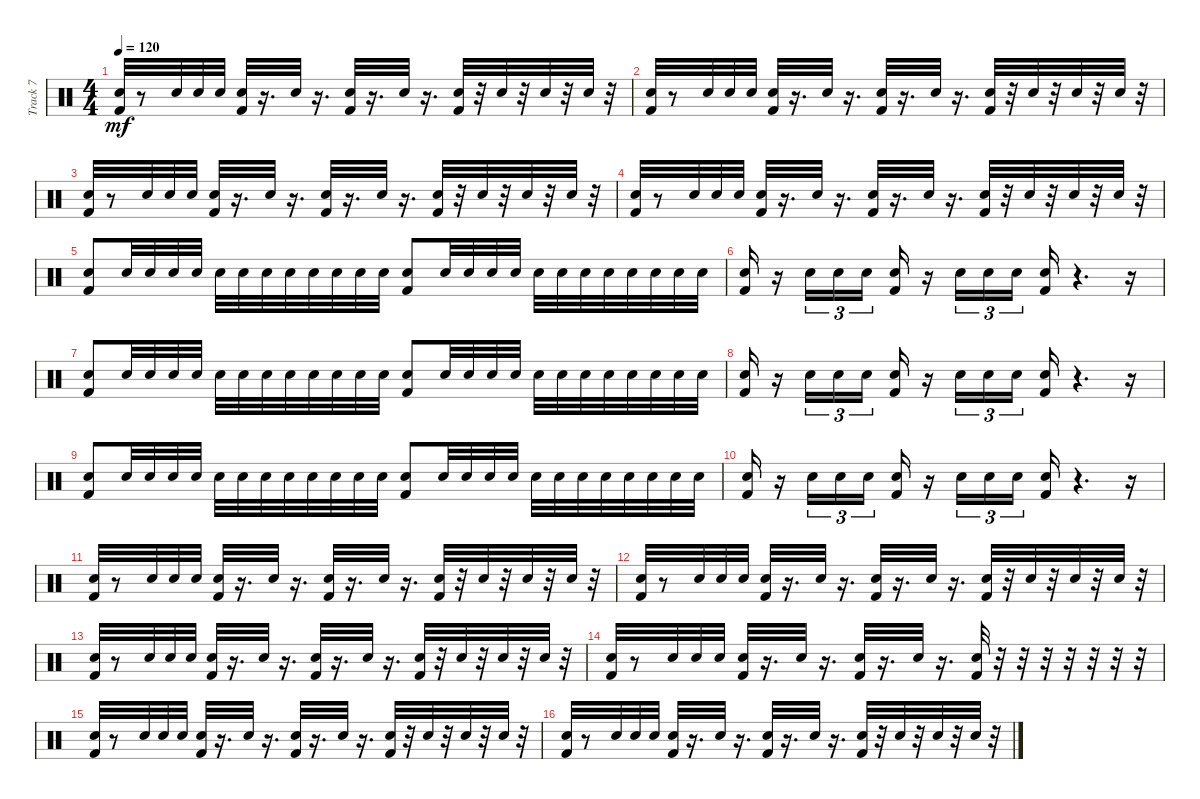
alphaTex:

\track ("Track 7" "Track 7") {instrument percussion}
\staff {score}
\articulation defaults
\ts (4 4)
\tempo 120
\clef neutral
\ks c
("Electric Snare (hit)" "Kick (hit) 2").32{dy mf} r.8 "Electric Snare (hit)".32 "Electric Snare (hit)".32 "Electric Snare (hit)".32 ("Electric Snare (hit)" "Kick (hit) 2").32 r.16{d} "Electric Snare (hit)".32 r.16{d} ("Electric Snare (hit)" "Kick (hit) 2").32 r.16{d} "Electric Snare (hit)".32 r.16{d} ("Electric Snare (hit)" "Kick (hit) 2").32 r.32 "Electric Snare (hit)".32 r.32 "Electric Snare (hit)".32 r.32 "Electric Snare (hit)".32 r.32 |
("Electric Snare (hit)" "Kick (hit) 2").32 r.8 "Electric Snare (hit)".32 "Electric Snare (hit)".32 "Electric Snare (hit)".32 ("Electric Snare (hit)" "Kick (hit) 2").32 r.16{d} "Electric Snare (hit)".32 r.16{d} ("Electric Snare (hit)" "Kick (hit) 2").32 r.16{d} "Electric Snare (hit)".32 r.16{d} ("Electric Snare (hit)" "Kick (hit) 2").32 r.32 "Electric Snare (hit)".32 r.32 "Electric Snare (hit)".32 r.32 "Electric Snare (hit)".32 r.32 |
("Electric Snare (hit)" "Kick (hit) 2").32 r.8 "Electric Snare (hit)".32 "Electric Snare (hit)".32 "Electric Snare (hit)".32 ("Electric Snare (hit)" "Kick (hit) 2").32 r.16{d} "Electric Snare (hit)".32 r.16{d} ("Electric Snare (hit)" "Kick (hit) 2").32 r.16{d} "Electric Snare (hit)".32 r.16{d} ("Electric Snare (hit)" "Kick (hit) 2").32 r.32 "Electric Snare (hit)".32 r.32 "Electric Snare (hit)".32 r.32 "Electric Snare (hit)".32 r.32 |
("Electric Snare (hit)" "Kick (hit) 2").32 r.8 "Electric Snare (hit)".32 "Electric Snare (hit)".32 "Electric Snare (hit)".32 ("Electric Snare (hit)" "Kick (hit) 2").32 r.16{d} "Electric Snare (hit)".32 r.16{d} ("Electric Snare (hit)" "Kick (hit) 2").32 r.16{d} "Electric Snare (hit)".32 r.16{d} ("Electric Snare (hit)" "Kick (hit) 2").32 r.32 "Electric Snare (hit)".32 r.32 "Electric Snare (hit)".32 r.32 "Electric Snare (hit)".32 r.32 |
("Electric Snare (hit)" "Kick (hit) 2").8 "Electric Snare (hit)".32 "Electric Snare (hit)".32 "Electric Snare (hit)".32 "Electric Snare (hit)".32 "Electric Snare (hit)".32 "Electric Snare (hit)".32 "Electric Snare (hit)".32 "Electric Snare (hit)".32 "Electric Snare (hit)".32 "Electric Snare (hit)".32 "Electric Snare (hit)".32 "Electric Snare (hit)".32 ("Electric Snare (hit)" "Kick (hit) 2").8 "Electric Snare (hit)".32 "Electric Snare (hit)".32 "Electric Snare (hit)".32 "Electric Snare (hit)".32 "Electric Snare (hit)".32 "Electric Snare (hit)".32 "Electric Snare (hit)".32 "Electric Snare (hit)".32 "Electric Snare (hit)".32 "Electric Snare (hit)".32 "Electric Snare (hit)".32 "Electric Snare (hit)".32 |
("Electric Snare (hit)" "Kick (hit) 2").16 r.16 "Electric Snare (hit)".16{tu (3 2)} "Electric Snare (hit)".16{tu (3 2)} "Electric Snare (hit)".16{tu (3 2)} ("Electric Snare (hit)" "Kick (hit) 2").16 r.16 "Electric Snare (hit)".16{tu (3 2)} "Electric Snare (hit)".16{tu (3 2)} "Electric Snare (hit)".16{tu (3 2)} ("Electric Snare (hit)" "Kick (hit) 2").16 r.4{d} r.16 |
("Electric Snare (hit)" "Kick (hit) 2").8 "Electric Snare (hit)".32 "Electric Snare (hit)".32 "Electric Snare (hit)".32 "Electric Snare (hit)".32 "Electric Snare (hit)".32 "Electric Snare (hit)".32 "Electric Snare (hit)".32 "Electric Snare (hit)".32 "Electric Snare (hit)".32 "Electric Snare (hit)".32 "Electric Snare (hit)".32 "Electric Snare (hit)".32 ("Electric Snare (hit)" "Kick (hit) 2").8 "Electric Snare (hit)".32 "Electric Snare (hit)".32 "Electric Snare (hit)".32 "Electric Snare (hit)".32 "Electric Snare (hit)".32 "Electric Snare (hit)".32 "Electric Snare (hit)".32 "Electric Snare (hit)".32 "Electric Snare (hit)".32 "Electric Snare (hit)".32 "Electric Snare (hit)".32 "Electric Snare (hit)".32 |
("Electric Snare (hit)" "Kick (hit) 2").16 r.16 "Electric Snare (hit)".16{tu (3 2)} "Electric Snare (hit)".16{tu (3 2)} "Electric Snare (hit)".16{tu (3 2)} ("Electric Snare (hit)" "Kick (hit) 2").16 r.16 "Electric Snare (hit)".16{tu (3 2)} "Electric Snare (hit)".16{tu (3 2)} "Electric Snare (hit)".16{tu (3 2)} ("Electric Snare (hit)" "Kick (hit) 2").16 r.4{d} r.16 |
("Electric Snare (hit)" "Kick (hit) 2").8 "Electric Snare (hit)".32 "Electric Snare (hit)".32 "Electric Snare (hit)".32 "Electric Snare (hit)".32 "Electric Snare (hit)".32 "Electric Snare (hit)".32 "Electric Snare (hit)".32 "Electric Snare (hit)".32 "Electric Snare (hit)".32 "Electric Snare (hit)".32 "Electric Snare (hit)".32 "Electric Snare (hit)".32 ("Electric Snare (hit)" "Kick (hit) 2").8 "Electric Snare (hit)".32 "Electric Snare (hit)".32 "Electric Snare (hit)".32 "Electric Snare (hit)".32 "Electric Snare (hit)".32 "Electric Snare (hit)".32 "Electric Snare (hit)".32 "Electric Snare (hit)".32 "Electric Snare (hit)".32 "Electric Snare (hit)".32 "Electric Snare (hit)".32 "Electric Snare (hit)".32 |
("Electric Snare (hit)" "Kick (hit) 2").16 r.16 "Electric Snare (hit)".16{tu (3 2)} "Electric Snare (hit)".16{tu (3 2)} "Electric Snare (hit)".16{tu (3 2)} ("Electric Snare (hit)" "Kick (hit) 2").16 r.16 "Electric Snare (hit)".16{tu (3 2)} "Electric Snare (hit)".16{tu (3 2)} "Electric Snare (hit)".16{tu (3 2)} ("Electric Snare (hit)" "Kick (hit) 2").16 r.4{d} r.16 |
("Electric Snare (hit)" "Kick (hit) 2").32 r.8 "Electric Snare (hit)".32 "Electric Snare (hit)".32 "Electric Snare (hit)".32 ("Electric Snare (hit)" "Kick (hit) 2").32 r.16{d} "Electric Snare (hit)".32 r.16{d} ("Electric Snare (hit)" "Kick (hit) 2").32 r.16{d} "Electric Snare (hit)".32 r.16{d} ("Electric Snare (hit)" "Kick (hit) 2").32 r.32 "Electric Snare (hit)".32 r.32 "Electric Snare (hit)".32 r.32 "Electric Snare (hit)".32 r.32 |
("Electric Snare (hit)" "Kick (hit) 2").32 r.8 "Electric Snare (hit)".32 "Electric Snare (hit)".32 "Electric Snare (hit)".32 ("Electric Snare (hit)" "Kick (hit) 2").32 r.16{d} "Electric Snare (hit)".32 r.16{d} ("Electric Snare (hit)" "Kick (hit) 2").32 r.16{d} "Electric Snare (hit)".32 r.16{d} ("Electric Snare (hit)" "Kick (hit) 2").32 r.32 "Electric Snare (hit)".32 r.32 "Electric Snare (hit)".32 r.32 "Electric Snare (hit)".32 r.32 |
("Electric Snare (hit)" "Kick (hit) 2").32 r.8 "Electric Snare (hit)".32 "Electric Snare (hit)".32 "Electric Snare (hit)".32 ("Electric Snare (hit)" "Kick (hit) 2").32 r.16{d} "Electric Snare (hit)".32 r.16{d} ("Electric Snare (hit)" "Kick (hit) 2").32 r.16{d} "Electric Snare (hit)".32 r.16{d} ("Electric Snare (hit)" "Kick (hit) 2").32 r.32 "Electric Snare (hit)".32 r.32 "Electric Snare (hit)".32 r.32 "Electric Snare (hit)".32 r.32 |
("Electric Snare (hit)" "Kick (hit) 2").32 r.8 "Electric Snare (hit)".32 "Electric Snare (hit)".32 "Electric Snare (hit)".32 ("Electric Snare (hit)" "Kick (hit) 2").32 r.16{d} "Electric Snare (hit)".32 r.16{d} ("Electric Snare (hit)" "Kick (hit) 2").32 r.16{d} "Electric Snare (hit)".32 r.16{d} ("Electric Snare (hit)" "Kick (hit) 2").32 r.32 r.32 r.32 r.32 r.32 r.32 r.32 |
("Electric Snare (hit)" "Kick (hit) 2").32 r.8 "Electric Snare (hit)".32 "Electric Snare (hit)".32 "Electric Snare (hit)".32 ("Electric Snare (hit)" "Kick (hit) 2").32 r.16{d} "Electric Snare (hit)".32 r.16{d} ("Electric Snare (hit)" "Kick (hit) 2").32 r.16{d} "Electric Snare (hit)".32 r.16{d} ("Electric Snare (hit)" "Kick (hit) 2").32 r.32 "Electric Snare (hit)".32 r.32 "Electric Snare (hit)".32 r.32 "Electric Snare (hit)".32 r.32 |
("Electric Snare (hit)" "Kick (hit) 2").32 r.8 "Electric Snare (hit)".32 "Electric Snare (hit)".32 "Electric Snare (hit)".32 ("Electric Snare (hit)" "Kick (hit) 2").32 r.16{d} "Electric Snare (hit)".32 r.16{d} ("Electric Snare (hit)" "Kick (hit) 2").32 r.16{d} "Electric Snare (hit)".32 r.16{d} ("Electric Snare (hit)" "Kick (hit) 2").32 r.32 "Electric Snare (hit)".32 r.32 "Electric Snare (hit)".32 r.32 "Electric Snare (hit)".32 r.32
